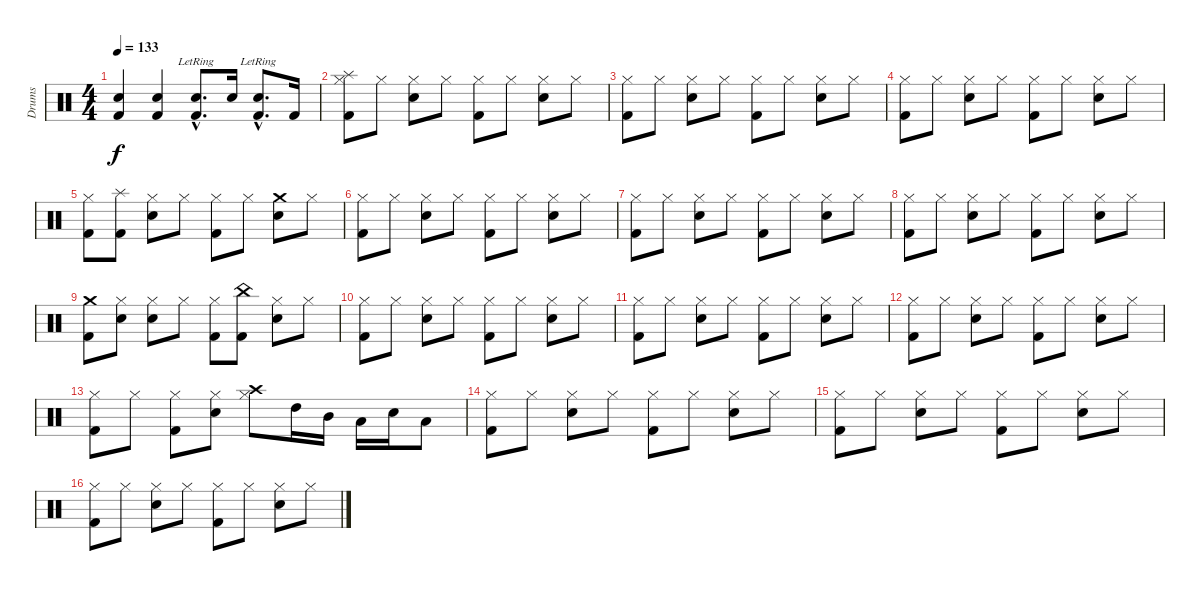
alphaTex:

\track ("Drums" "Drums") {instrument percussion}
\staff {score}
\articulation defaults
\ts (4 4)
\tempo 133
\clef neutral
\ks c
("Kick (hit) 2" "Snare (hit) 2").4{dy f} ("Kick (hit) 2" "Snare (hit) 2").4 ("Kick (hit) 2"{hac lr} "Snare (hit) 2"{hac}).8{d} "Snare (hit) 2".16 ("Snare (hit) 2"{hac lr} "Kick (hit) 2"{hac}).8{d} "Kick (hit) 2".16 |
("Kick (hit) 2" "Hi-Hat (closed)" "Splash (hit)").8 "Hi-Hat (closed)".8 ("Snare (hit) 2" "Hi-Hat (closed)").8 "Hi-Hat (closed)".8 ("Kick (hit) 2" "Hi-Hat (closed)").8 "Hi-Hat (closed)".8 ("Snare (hit) 2" "Hi-Hat (closed)").8 "Hi-Hat (closed)".8 |
("Kick (hit) 2" "Hi-Hat (closed)").8 "Hi-Hat (closed)".8 ("Snare (hit) 2" "Hi-Hat (closed)").8 "Hi-Hat (closed)".8 ("Kick (hit) 2" "Hi-Hat (closed)").8 "Hi-Hat (closed)".8 ("Snare (hit) 2" "Hi-Hat (closed)").8 "Hi-Hat (closed)".8 |
("Kick (hit) 2" "Hi-Hat (closed)").8 "Hi-Hat (closed)".8 ("Snare (hit) 2" "Hi-Hat (closed)").8 "Hi-Hat (closed)".8 ("Kick (hit) 2" "Hi-Hat (closed)").8 "Hi-Hat (closed)".8 ("Snare (hit) 2" "Hi-Hat (closed)").8 "Hi-Hat (closed)".8 |
("Kick (hit) 2" "Hi-Hat (closed)").8 ("Kick (hit) 2" "Splash (hit)").8 ("Snare (hit) 2" "Hi-Hat (closed)").8 "Hi-Hat (closed)".8 ("Kick (hit) 2" "Hi-Hat (closed)").8 "Hi-Hat (closed)".8 ("Snare (hit) 2" "Crash medium (hit)").8 "Hi-Hat (closed)".8 |
("Kick (hit) 2" "Hi-Hat (closed)").8 "Hi-Hat (closed)".8 ("Snare (hit) 2" "Hi-Hat (closed)").8 "Hi-Hat (closed)".8 ("Kick (hit) 2" "Hi-Hat (closed)").8 "Hi-Hat (closed)".8 ("Snare (hit) 2" "Hi-Hat (closed)").8 "Hi-Hat (closed)".8 |
("Kick (hit) 2" "Hi-Hat (closed)").8 "Hi-Hat (closed)".8 ("Snare (hit) 2" "Hi-Hat (closed)").8 "Hi-Hat (closed)".8 ("Kick (hit) 2" "Hi-Hat (closed)").8 "Hi-Hat (closed)".8 ("Snare (hit) 2" "Hi-Hat (closed)").8 "Hi-Hat (closed)".8 |
("Kick (hit) 2" "Hi-Hat (closed)").8 "Hi-Hat (closed)".8 ("Snare (hit) 2" "Hi-Hat (closed)").8 "Hi-Hat (closed)".8 ("Kick (hit) 2" "Hi-Hat (closed)").8 "Hi-Hat (closed)".8 ("Snare (hit) 2" "Hi-Hat (closed)").8 "Hi-Hat (closed)".8 |
("Kick (hit) 2" "Crash medium (hit)").8 ("Snare (hit) 2" "Hi-Hat (closed)").8 ("Snare (hit) 2" "Hi-Hat (closed)").8 "Hi-Hat (closed)".8 ("Kick (hit) 2" "Hi-Hat (closed)").8 ("Kick (hit) 2" "China (hit)").8 ("Snare (hit) 2" "Hi-Hat (closed)").8 "Hi-Hat (closed)".8 |
("Kick (hit) 2" "Hi-Hat (closed)").8 "Hi-Hat (closed)".8 ("Snare (hit) 2" "Hi-Hat (closed)").8 "Hi-Hat (closed)".8 ("Kick (hit) 2" "Hi-Hat (closed)").8 "Hi-Hat (closed)".8 ("Snare (hit) 2" "Hi-Hat (closed)").8 "Hi-Hat (closed)".8 |
("Kick (hit) 2" "Hi-Hat (closed)").8 "Hi-Hat (closed)".8 ("Snare (hit) 2" "Hi-Hat (closed)").8 "Hi-Hat (closed)".8 ("Kick (hit) 2" "Hi-Hat (closed)").8 "Hi-Hat (closed)".8 ("Snare (hit) 2" "Hi-Hat (closed)").8 "Hi-Hat (closed)".8 |
("Kick (hit) 2" "Hi-Hat (closed)").8 "Hi-Hat (closed)".8 ("Snare (hit) 2" "Hi-Hat (closed)").8 "Hi-Hat (closed)".8 ("Kick (hit) 2" "Hi-Hat (closed)").8 "Hi-Hat (closed)".8 ("Snare (hit) 2" "Hi-Hat (closed)").8 "Hi-Hat (closed)".8 |
("Kick (hit) 2" "Hi-Hat (closed)").8 "Hi-Hat (closed)".8 ("Kick (hit) 2" "Hi-Hat (closed)").8 ("Snare (hit) 2" "Hi-Hat (closed)").8 ("Crash high (hit)" "Hi-Hat (closed)").8 "High Tom (hit)".16 "Mid Tom (hit)".16 "Low Tom (hit)".16 "Snare (hit) 2".16 "Low Floor Tom (hit)".8 |
("Kick (hit) 2" "Hi-Hat (closed)").8 "Hi-Hat (closed)".8 ("Snare (hit) 2" "Hi-Hat (closed)").8 "Hi-Hat (closed)".8 ("Kick (hit) 2" "Hi-Hat (closed)").8 "Hi-Hat (closed)".8 ("Snare (hit) 2" "Hi-Hat (closed)").8 "Hi-Hat (closed)".8 |
("Kick (hit) 2" "Hi-Hat (closed)").8 "Hi-Hat (closed)".8 ("Snare (hit) 2" "Hi-Hat (closed)").8 "Hi-Hat (closed)".8 ("Kick (hit) 2" "Hi-Hat (closed)").8 "Hi-Hat (closed)".8 ("Snare (hit) 2" "Hi-Hat (closed)").8 "Hi-Hat (closed)".8 |
("Kick (hit) 2" "Hi-Hat (closed)").8 "Hi-Hat (closed)".8 ("Snare (hit) 2" "Hi-Hat (closed)").8 "Hi-Hat (closed)".8 ("Kick (hit) 2" "Hi-Hat (closed)").8 "Hi-Hat (closed)".8 ("Snare (hit) 2" "Hi-Hat (closed)").8 "Hi-Hat (closed)".8
